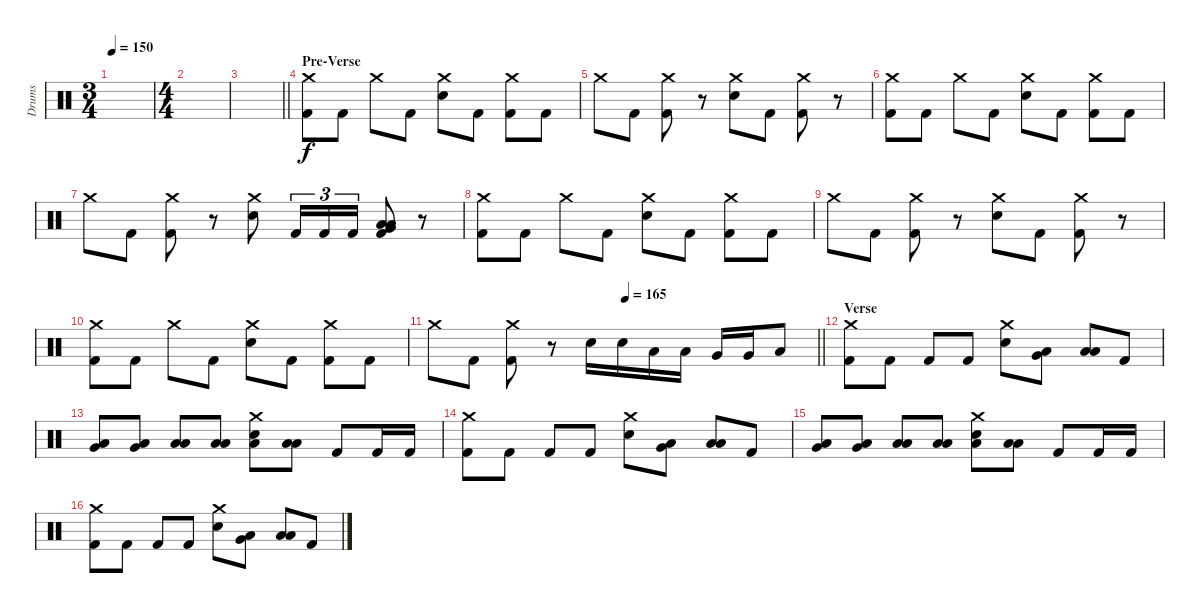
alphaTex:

\track ("Drums" "Drums") {instrument percussion}
\staff {score}
\articulation defaults
\ts (3 4)
\tempo 150
\clef neutral
\ks c
|
\ts (4 4)
|
\barLineRight lightlight
|
\section ("" "Pre-Verse")
("Crash medium (hit)" "Kick (hit) 2").8 "Kick (hit) 2".8 "Crash medium (hit)".8 "Kick (hit) 2".8 ("Crash medium (hit)" "Electric Snare (hit)").8 "Kick (hit) 2".8 ("Crash medium (hit)" "Kick (hit) 2").8 "Kick (hit) 2".8 |
"Crash medium (hit)".8 "Kick (hit) 2".8 ("Crash medium (hit)" "Kick (hit) 2").8 r.8 ("Crash medium (hit)" "Electric Snare (hit)").8 "Kick (hit) 2".8 ("Crash medium (hit)" "Kick (hit) 2").8 r.8 |
("Crash medium (hit)" "Kick (hit) 2").8 "Kick (hit) 2".8 "Crash medium (hit)".8 "Kick (hit) 2".8 ("Crash medium (hit)" "Electric Snare (hit)").8 "Kick (hit) 2".8 ("Crash medium (hit)" "Kick (hit) 2").8 "Kick (hit) 2".8 |
"Crash medium (hit)".8 "Kick (hit) 2".8 ("Crash medium (hit)" "Kick (hit) 2").8 r.8 ("Crash medium (hit)" "Electric Snare (hit)").8 "Kick (hit) 2".16{tu (3 2)} "Kick (hit) 2".16{tu (3 2)} "Kick (hit) 2".16{tu (3 2)} ("Low Tom (hit)" "Very Low Tom (hit)" "Low Floor Tom (hit)" "Kick (hit) 2").8 r.8 |
("Crash medium (hit)" "Kick (hit) 2").8 "Kick (hit) 2".8 "Crash medium (hit)".8 "Kick (hit) 2".8 ("Crash medium (hit)" "Electric Snare (hit)").8 "Kick (hit) 2".8 ("Crash medium (hit)" "Kick (hit) 2").8 "Kick (hit) 2".8 |
"Crash medium (hit)".8 "Kick (hit) 2".8 ("Crash medium (hit)" "Kick (hit) 2").8 r.8 ("Crash medium (hit)" "Electric Snare (hit)").8 "Kick (hit) 2".8 ("Crash medium (hit)" "Kick (hit) 2").8 r.8 |
("Crash medium (hit)" "Kick (hit) 2").8 "Kick (hit) 2".8 "Crash medium (hit)".8 "Kick (hit) 2".8 ("Crash medium (hit)" "Electric Snare (hit)").8 "Kick (hit) 2".8 ("Crash medium (hit)" "Kick (hit) 2").8 "Kick (hit) 2".8 |
\tempo (165 0.5)
\barLineRight lightlight "Crash medium (hit)".8 "Kick (hit) 2".8
("Crash medium (hit)" "Kick (hit) 2").8 r.8 "Electric Snare (hit)".16 "Electric Snare (hit)".16 "Low Tom (hit)".16 "Low Tom (hit)".16 "Very Low Tom (hit)".16 "Very Low Tom (hit)".16 "Low Floor Tom (hit)".8 |
\section ("" "Verse")
("Crash medium (hit)" "Kick (hit) 2").8 "Kick (hit) 2".8 "Kick (hit) 2".8 "Kick (hit) 2".8 ("Crash medium (hit)" "Electric Snare (hit)").8 ("Low Tom (hit)" "Very Low Tom (hit)").8 ("Low Tom (hit)" "Low Floor Tom (hit)").8 "Kick (hit) 2".8 |
("Low Tom (hit)" "Very Low Tom (hit)").8 ("Low Tom (hit)" "Very Low Tom (hit)").8 ("Low Tom (hit)" "Low Floor Tom (hit)").8 ("Low Tom (hit)" "Low Floor Tom (hit)").8 ("Crash medium (hit)" "Electric Snare (hit)" "Low Tom (hit)").8 ("Low Tom (hit)" "Low Tom (hit)").8 "Kick (hit) 2".8 "Kick (hit) 2".16 "Kick (hit) 2".16 |
("Crash medium (hit)" "Kick (hit) 2").8 "Kick (hit) 2".8 "Kick (hit) 2".8 "Kick (hit) 2".8 ("Crash medium (hit)" "Electric Snare (hit)").8 ("Low Tom (hit)" "Very Low Tom (hit)").8 ("Low Tom (hit)" "Low Floor Tom (hit)").8 "Kick (hit) 2".8 |
("Low Tom (hit)" "Very Low Tom (hit)").8 ("Low Tom (hit)" "Very Low Tom (hit)").8 ("Low Tom (hit)" "Low Floor Tom (hit)").8 ("Low Tom (hit)" "Low Floor Tom (hit)").8 ("Crash medium (hit)" "Electric Snare (hit)" "Low Tom (hit)").8 ("Low Tom (hit)" "Low Tom (hit)").8 "Kick (hit) 2".8 "Kick (hit) 2".16 "Kick (hit) 2".16 |
("Crash medium (hit)" "Kick (hit) 2").8 "Kick (hit) 2".8 "Kick (hit) 2".8 "Kick (hit) 2".8 ("Crash medium (hit)" "Electric Snare (hit)").8 ("Low Tom (hit)" "Very Low Tom (hit)").8 ("Low Tom (hit)" "Low Floor Tom (hit)").8 "Kick (hit) 2".8
